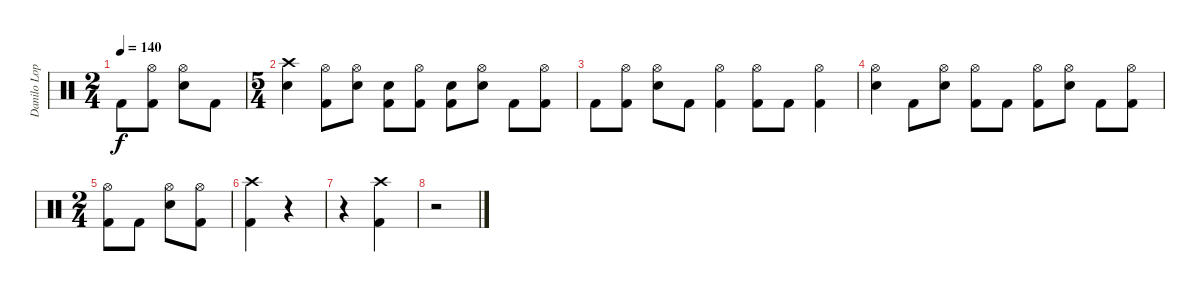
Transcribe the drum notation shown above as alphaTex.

\track ("Danilo Lopes" "Danilo Lop") {instrument percussion}
\staff {score}
\articulation defaults
\ts (2 4)
\tempo 140
\clef neutral
\ks c "Kick (hit) 2".8{dy f}
("Kick (hit) 2" "Hi-Hat (open)").8 ("Snare (hit) 2" "Hi-Hat (open)").8 "Kick (hit) 2".8 |
\ts (5 4)
("Crash high (hit)" "Snare (hit) 2").4 ("Kick (hit) 2" "Hi-Hat (open)").8 ("Snare (hit) 2" "Hi-Hat (open)").8 ("Kick (hit) 2" "Snare (hit)").8 ("Kick (hit) 2" "Hi-Hat (open)").8 ("Kick (hit) 2" "Snare (hit)").8 ("Snare (hit) 2" "Hi-Hat (open)").8 "Kick (hit) 2".8 ("Kick (hit) 2" "Hi-Hat (open)").8 |
"Kick (hit) 2".8 ("Kick (hit) 2" "Hi-Hat (open)").8 ("Snare (hit) 2" "Hi-Hat (open)").8 "Kick (hit) 2".8 ("Kick (hit) 2" "Hi-Hat (open)").4 ("Kick (hit) 2" "Hi-Hat (open)").8 "Kick (hit) 2".8 ("Kick (hit) 2" "Hi-Hat (open)").4 |
("Snare (hit) 2" "Hi-Hat (open)").4 "Kick (hit) 2".8 ("Snare (hit) 2" "Hi-Hat (open)").8 ("Kick (hit) 2" "Hi-Hat (open)").8 "Kick (hit) 2".8 ("Kick (hit) 2" "Hi-Hat (open)").8 ("Snare (hit) 2" "Hi-Hat (open)").8 "Kick (hit) 2".8 ("Kick (hit) 2" "Hi-Hat (open)").8 |
\ts (2 4)
("Kick (hit) 2" "Hi-Hat (open)").8 "Kick (hit) 2".8 ("Snare (hit) 2" "Hi-Hat (open)").8 ("Kick (hit) 2" "Hi-Hat (open)").8 |
("Crash high (hit)" "Kick (hit) 2").4 r.4 |
r.4 ("Crash high (hit)" "Kick (hit) 2").4 |
r.2
